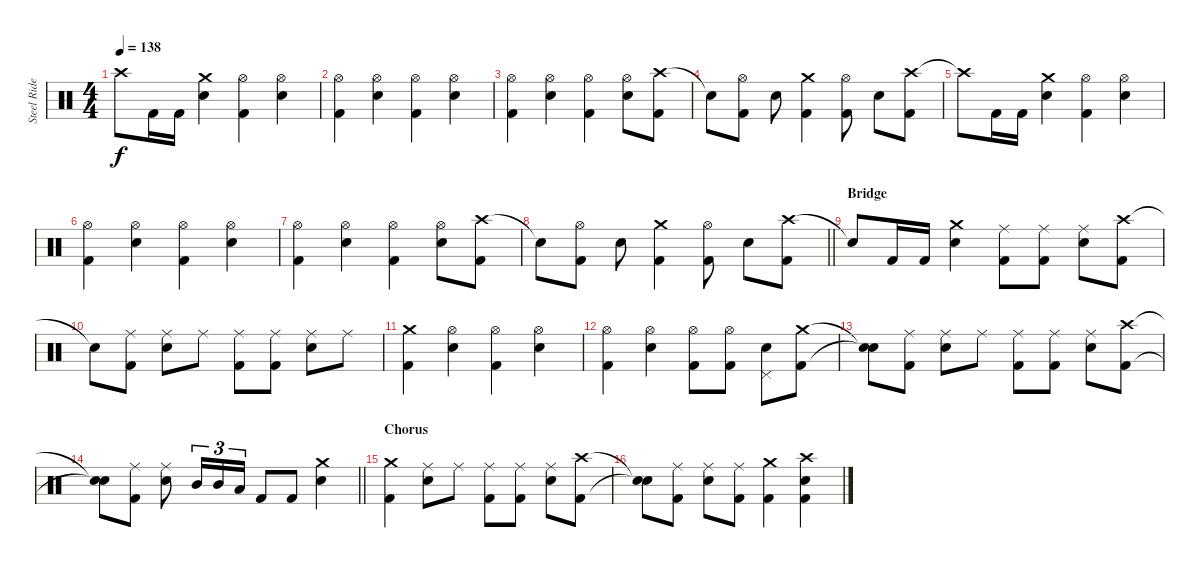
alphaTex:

\track ("Steel Rider" "Steel Ride") {instrument percussion}
\staff {score}
\articulation defaults
\ts (4 4)
\tempo 138
\clef neutral
\ks c "Crash high (hit)"{t}.8{dy f} "Kick (hit) 2".16 "Kick (hit) 2".16
("Crash medium (hit)" "Electric Snare (hit)").4 ("Hi-Hat (open)" "Kick (hit) 2").4 ("Hi-Hat (open)" "Electric Snare (hit)").4 |
("Hi-Hat (open)" "Kick (hit) 2").4 ("Hi-Hat (open)" "Electric Snare (hit)").4 ("Hi-Hat (open)" "Kick (hit) 2").4 ("Hi-Hat (open)" "Electric Snare (hit)").4 |
("Hi-Hat (open)" "Kick (hit) 2").4 ("Hi-Hat (open)" "Electric Snare (hit)").4 ("Hi-Hat (open)" "Kick (hit) 2").4 ("Hi-Hat (open)" "Electric Snare (hit)").8 ("Crash high (hit)" "Kick (hit) 2").8 |
"Snare (hit)"{t}.8 ("Hi-Hat (open)" "Kick (hit) 2").8 "Electric Snare (hit)".8 ("Crash medium (hit)" "Kick (hit) 2").4 ("Hi-Hat (open)" "Kick (hit) 2").8 "Electric Snare (hit)".8 ("Crash high (hit)" "Kick (hit) 2").8 |
"Crash high (hit)"{t}.8 "Kick (hit) 2".16 "Kick (hit) 2".16 ("Crash medium (hit)" "Electric Snare (hit)").4 ("Hi-Hat (open)" "Kick (hit) 2").4 ("Hi-Hat (open)" "Electric Snare (hit)").4 |
("Hi-Hat (open)" "Kick (hit) 2").4 ("Hi-Hat (open)" "Electric Snare (hit)").4 ("Hi-Hat (open)" "Kick (hit) 2").4 ("Hi-Hat (open)" "Electric Snare (hit)").4 |
("Hi-Hat (open)" "Kick (hit) 2").4 ("Hi-Hat (open)" "Electric Snare (hit)").4 ("Hi-Hat (open)" "Kick (hit) 2").4 ("Hi-Hat (open)" "Electric Snare (hit)").8 ("Crash high (hit)" "Kick (hit) 2").8 |
\barLineRight lightlight "Snare (hit)"{t}.8
("Hi-Hat (open)" "Kick (hit) 2").8 "Electric Snare (hit)".8 ("Crash medium (hit)" "Kick (hit) 2").4 ("Hi-Hat (open)" "Kick (hit) 2").8 "Electric Snare (hit)".8 ("Crash high (hit)" "Kick (hit) 2").8 |
\section ("" "Bridge")
"Snare (hit)"{t}.8 "Kick (hit) 2".16 "Kick (hit) 2".16 ("Crash medium (hit)" "Electric Snare (hit)").4 ("Ride (middle)" "Kick (hit) 2").8 ("Ride (middle)" "Kick (hit) 2").8 ("Ride (middle)" "Electric Snare (hit)").8 ("Crash high (hit)" "Kick (hit) 2").8 |
"Snare (hit)"{t}.8 ("Ride (middle)" "Kick (hit) 2").8 ("Ride (middle)" "Electric Snare (hit)").8 "Ride (middle)".8 ("Ride (middle)" "Kick (hit) 2").8 ("Ride (middle)" "Kick (hit) 2").8 ("Ride (middle)" "Electric Snare (hit)").8 "Ride (middle)".8 |
("Crash medium (hit)" "Kick (hit) 2").4 ("Hi-Hat (open)" "Electric Snare (hit)").4 ("Hi-Hat (open)" "Kick (hit) 2").4 ("Hi-Hat (open)" "Electric Snare (hit)").4 |
("Hi-Hat (open)" "Kick (hit) 2").4 ("Hi-Hat (open)" "Electric Snare (hit)").4 ("Hi-Hat (open)" "Kick (hit) 2").8 ("Hi-Hat (open)" "Kick (hit) 2").8 ("Pedal Hi-Hat (hit)" "Electric Snare (hit)").8 ("Crash medium (hit)" "Kick (hit) 2").8 |
("Snare (hit)"{t} "Snare (hit)"{t}).8 ("Ride (middle)" "Kick (hit) 2").8 ("Ride (middle)" "Electric Snare (hit)").8 "Ride (middle)".8 ("Ride (middle)" "Kick (hit) 2").8 ("Ride (middle)" "Kick (hit) 2").8 ("Ride (middle)" "Electric Snare (hit)").8 ("Crash high (hit)" "Kick (hit) 2").8 |
\barLineRight lightlight
("Snare (hit)"{t} "Snare (hit)"{t}).8 ("Ride (middle)" "Kick (hit) 2").8 ("Ride (middle)" "Electric Snare (hit)").8 "Mid Tom (hit)".16{tu (3 2)} "Mid Tom (hit)".16{tu (3 2)} "Low Tom (hit)".16{tu (3 2)} "Kick (hit) 2".8 "Kick (hit) 2".8 ("Crash medium (hit)" "Electric Snare (hit)").4 |
\section ("" "Chorus")
("Crash medium (hit)" "Kick (hit) 2").4 ("Ride (middle)" "Electric Snare (hit)").8 "Ride (middle)".8 ("Ride (middle)" "Kick (hit) 2").8 ("Ride (middle)" "Kick (hit) 2").8 ("Ride (middle)" "Electric Snare (hit)").8 ("Crash high (hit)" "Kick (hit) 2").8 |
("Snare (hit)"{t} "Snare (hit)"{t}).8 ("Ride (middle)" "Kick (hit) 2").8 ("Ride (middle)" "Electric Snare (hit)").8 ("Ride (middle)" "Kick (hit) 2").8 ("Crash medium (hit)" "Kick (hit) 2").4 ("Crash high (hit)" "Electric Snare (hit)" "Kick (hit) 2").4
